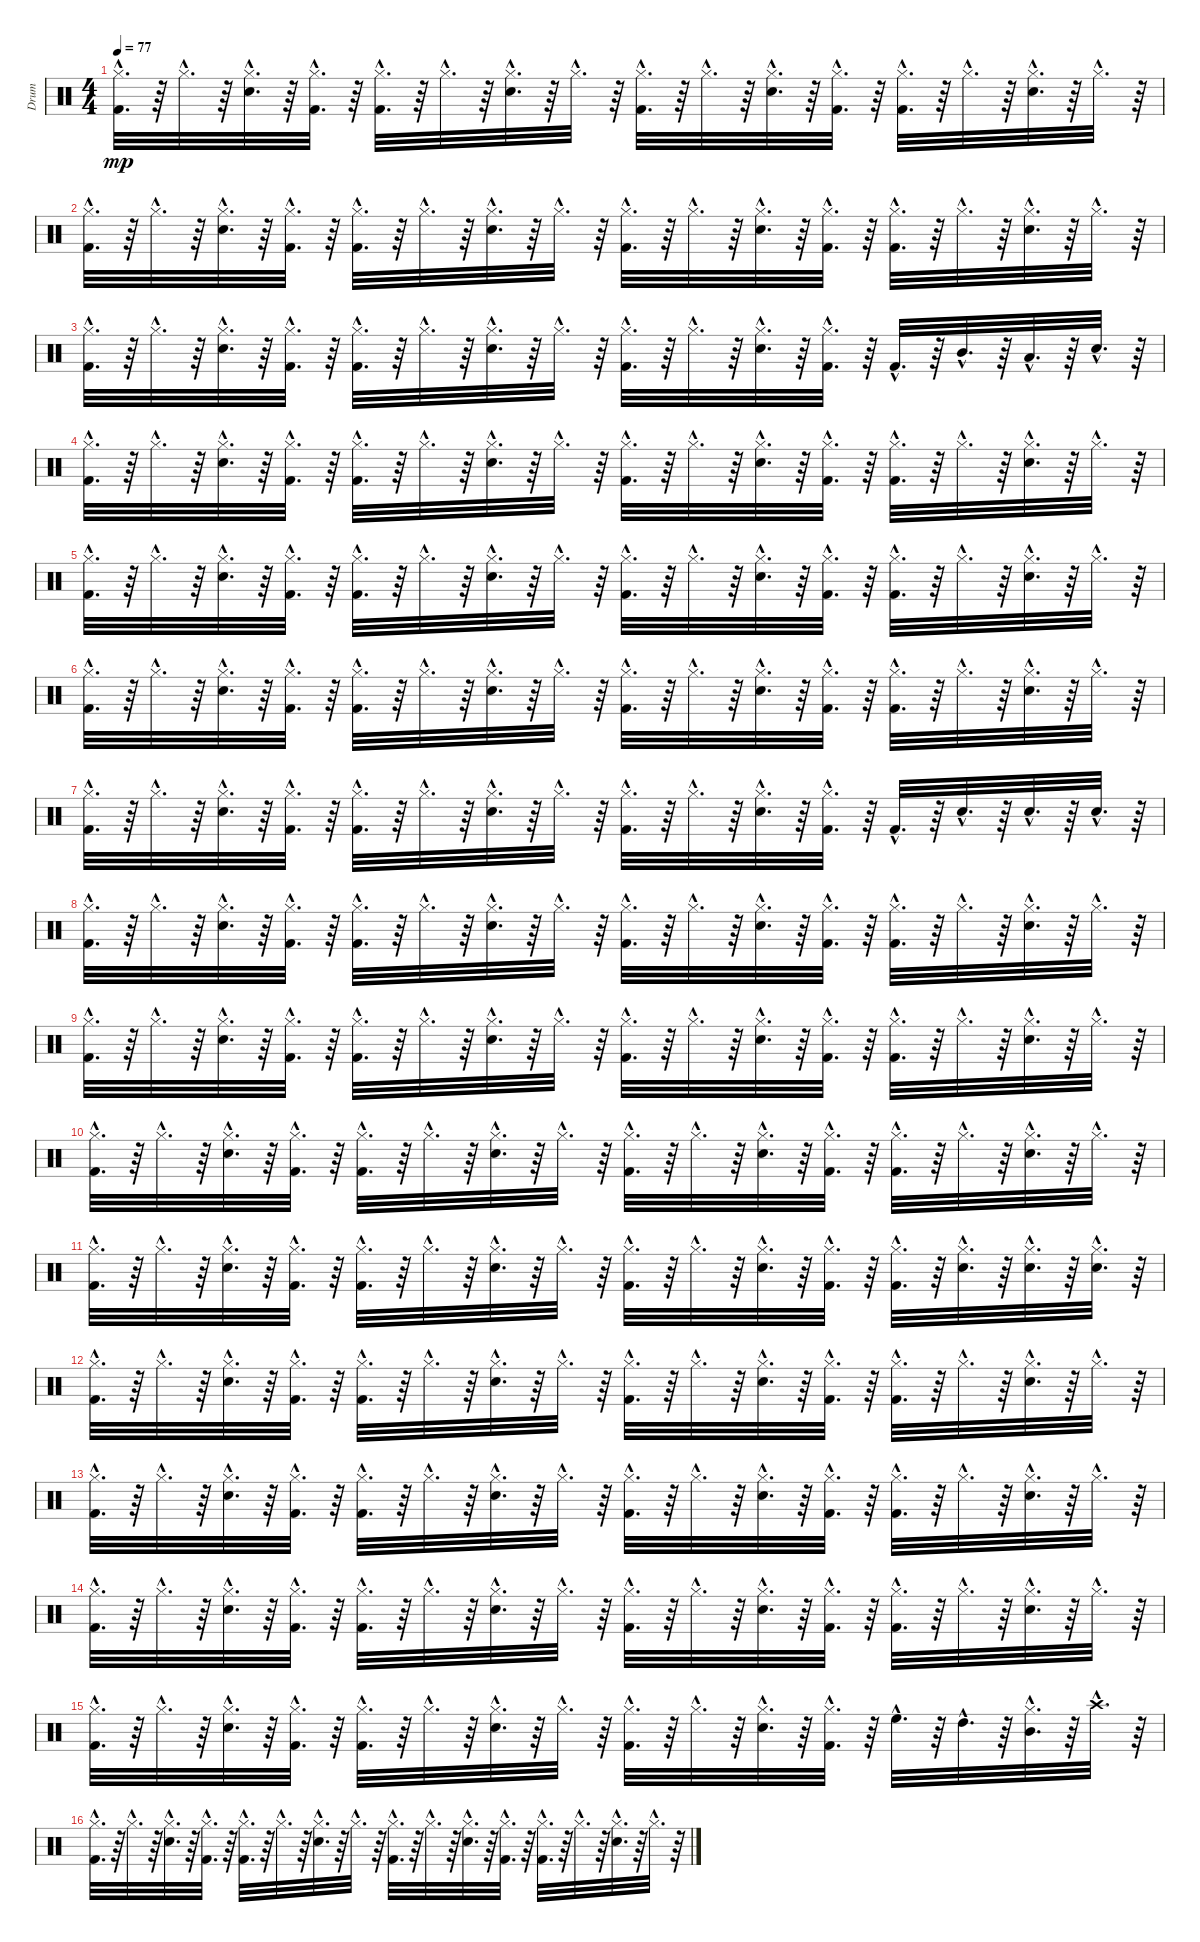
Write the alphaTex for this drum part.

\track ("Drum" "Drum") {instrument percussion}
\staff {score}
\articulation defaults
\ts (4 4)
\tempo 77
\clef neutral
\ks c
("Hi-Hat (closed)"{hac} "Kick (hit) 2"{hac}).32{d dy mp} r.64 "Hi-Hat (closed)"{hac}.32{d} r.64 ("Snare (hit) 2"{hac} "Hi-Hat (closed)"{hac}).32{d} r.64 ("Kick (hit) 2"{hac} "Hi-Hat (closed)"{hac}).32{d} r.64 ("Hi-Hat (closed)"{hac} "Kick (hit) 2"{hac}).32{d} r.64 "Hi-Hat (closed)"{hac}.32{d} r.64 ("Snare (hit) 2"{hac} "Hi-Hat (closed)"{hac}).32{d} r.64 "Hi-Hat (closed)"{hac}.32{d} r.64 ("Kick (hit) 2"{hac} "Hi-Hat (closed)"{hac}).32{d} r.64 "Hi-Hat (closed)"{hac}.32{d} r.64 ("Snare (hit) 2"{hac} "Hi-Hat (closed)"{hac}).32{d} r.64 ("Hi-Hat (closed)"{hac} "Kick (hit) 2"{hac}).32{d} r.64 ("Hi-Hat (closed)"{hac} "Kick (hit) 2"{hac}).32{d} r.64 "Hi-Hat (closed)"{hac}.32{d} r.64 ("Hi-Hat (closed)"{hac} "Snare (hit) 2"{hac}).32{d} r.64 "Hi-Hat (closed)"{hac}.32{d} r.64 |
("Hi-Hat (closed)"{hac} "Kick (hit) 2"{hac}).32{d} r.64 "Hi-Hat (closed)"{hac}.32{d} r.64 ("Hi-Hat (closed)"{hac} "Snare (hit) 2"{hac}).32{d} r.64 ("Kick (hit) 2"{hac} "Hi-Hat (closed)"{hac}).32{d} r.64 ("Hi-Hat (closed)"{hac} "Kick (hit) 2"{hac}).32{d} r.64 "Hi-Hat (closed)"{hac}.32{d} r.64 ("Hi-Hat (closed)"{hac} "Snare (hit) 2"{hac}).32{d} r.64 "Hi-Hat (closed)"{hac}.32{d} r.64 ("Hi-Hat (closed)"{hac} "Kick (hit) 2"{hac}).32{d} r.64 "Hi-Hat (closed)"{hac}.32{d} r.64 ("Hi-Hat (closed)"{hac} "Snare (hit) 2"{hac}).32{d} r.64 ("Kick (hit) 2"{hac} "Hi-Hat (closed)"{hac}).32{d} r.64 ("Kick (hit) 2"{hac} "Hi-Hat (closed)"{hac}).32{d} r.64 "Hi-Hat (closed)"{hac}.32{d} r.64 ("Hi-Hat (closed)"{hac} "Snare (hit) 2"{hac}).32{d} r.64 "Hi-Hat (closed)"{hac}.32{d} r.64 |
("Hi-Hat (closed)"{hac} "Kick (hit) 2"{hac}).32{d} r.64 "Hi-Hat (closed)"{hac}.32{d} r.64 ("Hi-Hat (closed)"{hac} "Snare (hit) 2"{hac}).32{d} r.64 ("Kick (hit) 2"{hac} "Hi-Hat (closed)"{hac}).32{d} r.64 ("Kick (hit) 2"{hac} "Hi-Hat (closed)"{hac}).32{d} r.64 "Hi-Hat (closed)"{hac}.32{d} r.64 ("Snare (hit) 2"{hac} "Hi-Hat (closed)"{hac}).32{d} r.64 "Hi-Hat (closed)"{hac}.32{d} r.64 ("Kick (hit) 2"{hac} "Hi-Hat (closed)"{hac}).32{d} r.64 "Hi-Hat (closed)"{hac}.32{d} r.64 ("Hi-Hat (closed)"{hac} "Snare (hit) 2"{hac}).32{d} r.64 ("Kick (hit) 2"{hac} "Hi-Hat (closed)"{hac}).32{d} r.64 "Kick (hit) 2"{hac}.32{d} r.64 "Mid Tom (hit)"{hac}.32{d} r.64 "Low Tom (hit)"{hac}.32{d} r.64 "Snare (hit) 2"{hac}.32{d} r.64 |
("Hi-Hat (closed)"{hac} "Kick (hit) 2"{hac}).32{d} r.64 "Hi-Hat (closed)"{hac}.32{d} r.64 ("Hi-Hat (closed)"{hac} "Snare (hit) 2"{hac}).32{d} r.64 ("Hi-Hat (closed)"{hac} "Kick (hit) 2"{hac}).32{d} r.64 ("Kick (hit) 2"{hac} "Hi-Hat (closed)"{hac}).32{d} r.64 "Hi-Hat (closed)"{hac}.32{d} r.64 ("Snare (hit) 2"{hac} "Hi-Hat (closed)"{hac}).32{d} r.64 "Hi-Hat (closed)"{hac}.32{d} r.64 ("Hi-Hat (closed)"{hac} "Kick (hit) 2"{hac}).32{d} r.64 "Hi-Hat (closed)"{hac}.32{d} r.64 ("Snare (hit) 2"{hac} "Hi-Hat (closed)"{hac}).32{d} r.64 ("Hi-Hat (closed)"{hac} "Kick (hit) 2"{hac}).32{d} r.64 ("Kick (hit) 2"{hac} "Hi-Hat (closed)"{hac}).32{d} r.64 "Hi-Hat (closed)"{hac}.32{d} r.64 ("Hi-Hat (closed)"{hac} "Snare (hit) 2"{hac}).32{d} r.64 "Hi-Hat (closed)"{hac}.32{d} r.64 |
("Hi-Hat (closed)"{hac} "Kick (hit) 2"{hac}).32{d} r.64 "Hi-Hat (closed)"{hac}.32{d} r.64 ("Hi-Hat (closed)"{hac} "Snare (hit) 2"{hac}).32{d} r.64 ("Kick (hit) 2"{hac} "Hi-Hat (closed)"{hac}).32{d} r.64 ("Kick (hit) 2"{hac} "Hi-Hat (closed)"{hac}).32{d} r.64 "Hi-Hat (closed)"{hac}.32{d} r.64 ("Snare (hit) 2"{hac} "Hi-Hat (closed)"{hac}).32{d} r.64 "Hi-Hat (closed)"{hac}.32{d} r.64 ("Hi-Hat (closed)"{hac} "Kick (hit) 2"{hac}).32{d} r.64 "Hi-Hat (closed)"{hac}.32{d} r.64 ("Hi-Hat (closed)"{hac} "Snare (hit) 2"{hac}).32{d} r.64 ("Hi-Hat (closed)"{hac} "Kick (hit) 2"{hac}).32{d} r.64 ("Kick (hit) 2"{hac} "Hi-Hat (closed)"{hac}).32{d} r.64 "Hi-Hat (closed)"{hac}.32{d} r.64 ("Snare (hit) 2"{hac} "Hi-Hat (closed)"{hac}).32{d} r.64 "Hi-Hat (closed)"{hac}.32{d} r.64 |
("Hi-Hat (closed)"{hac} "Kick (hit) 2"{hac}).32{d} r.64 "Hi-Hat (closed)"{hac}.32{d} r.64 ("Hi-Hat (closed)"{hac} "Snare (hit) 2"{hac}).32{d} r.64 ("Kick (hit) 2"{hac} "Hi-Hat (closed)"{hac}).32{d} r.64 ("Hi-Hat (closed)"{hac} "Kick (hit) 2"{hac}).32{d} r.64 "Hi-Hat (closed)"{hac}.32{d} r.64 ("Hi-Hat (closed)"{hac} "Snare (hit) 2"{hac}).32{d} r.64 "Hi-Hat (closed)"{hac}.32{d} r.64 ("Kick (hit) 2"{hac} "Hi-Hat (closed)"{hac}).32{d} r.64 "Hi-Hat (closed)"{hac}.32{d} r.64 ("Snare (hit) 2"{hac} "Hi-Hat (closed)"{hac}).32{d} r.64 ("Hi-Hat (closed)"{hac} "Kick (hit) 2"{hac}).32{d} r.64 ("Kick (hit) 2"{hac} "Hi-Hat (closed)"{hac}).32{d} r.64 "Hi-Hat (closed)"{hac}.32{d} r.64 ("Hi-Hat (closed)"{hac} "Snare (hit) 2"{hac}).32{d} r.64 "Hi-Hat (closed)"{hac}.32{d} r.64 |
("Kick (hit) 2"{hac} "Hi-Hat (closed)"{hac}).32{d} r.64 "Hi-Hat (closed)"{hac}.32{d} r.64 ("Snare (hit) 2"{hac} "Hi-Hat (closed)"{hac}).32{d} r.64 ("Kick (hit) 2"{hac} "Hi-Hat (closed)"{hac}).32{d} r.64 ("Kick (hit) 2"{hac} "Hi-Hat (closed)"{hac}).32{d} r.64 "Hi-Hat (closed)"{hac}.32{d} r.64 ("Hi-Hat (closed)"{hac} "Snare (hit) 2"{hac}).32{d} r.64 "Hi-Hat (closed)"{hac}.32{d} r.64 ("Kick (hit) 2"{hac} "Hi-Hat (closed)"{hac}).32{d} r.64 "Hi-Hat (closed)"{hac}.32{d} r.64 ("Hi-Hat (closed)"{hac} "Snare (hit) 2"{hac}).32{d} r.64 ("Hi-Hat (closed)"{hac} "Kick (hit) 2"{hac}).32{d} r.64 "Kick (hit) 2"{hac}.32{d} r.64 "Snare (hit) 2"{hac}.32{d} r.64 "Electric Snare (hit)"{hac}.32{d} r.64 "Electric Snare (hit)"{hac}.32{d} r.64 |
("Hi-Hat (closed)"{hac} "Kick (hit) 2"{hac}).32{d} r.64 "Hi-Hat (closed)"{hac}.32{d} r.64 ("Hi-Hat (closed)"{hac} "Snare (hit) 2"{hac}).32{d} r.64 ("Hi-Hat (closed)"{hac} "Kick (hit) 2"{hac}).32{d} r.64 ("Hi-Hat (closed)"{hac} "Kick (hit) 2"{hac}).32{d} r.64 "Hi-Hat (closed)"{hac}.32{d} r.64 ("Hi-Hat (closed)"{hac} "Snare (hit) 2"{hac}).32{d} r.64 "Hi-Hat (closed)"{hac}.32{d} r.64 ("Hi-Hat (closed)"{hac} "Kick (hit) 2"{hac}).32{d} r.64 "Hi-Hat (closed)"{hac}.32{d} r.64 ("Snare (hit) 2"{hac} "Hi-Hat (closed)"{hac}).32{d} r.64 ("Hi-Hat (closed)"{hac} "Kick (hit) 2"{hac}).32{d} r.64 ("Kick (hit) 2"{hac} "Hi-Hat (closed)"{hac}).32{d} r.64 "Hi-Hat (closed)"{hac}.32{d} r.64 ("Hi-Hat (closed)"{hac} "Snare (hit) 2"{hac}).32{d} r.64 "Hi-Hat (closed)"{hac}.32{d} r.64 |
("Hi-Hat (closed)"{hac} "Kick (hit) 2"{hac}).32{d} r.64 "Hi-Hat (closed)"{hac}.32{d} r.64 ("Snare (hit) 2"{hac} "Hi-Hat (closed)"{hac}).32{d} r.64 ("Kick (hit) 2"{hac} "Hi-Hat (closed)"{hac}).32{d} r.64 ("Kick (hit) 2"{hac} "Hi-Hat (closed)"{hac}).32{d} r.64 "Hi-Hat (closed)"{hac}.32{d} r.64 ("Snare (hit) 2"{hac} "Hi-Hat (closed)"{hac}).32{d} r.64 "Hi-Hat (closed)"{hac}.32{d} r.64 ("Kick (hit) 2"{hac} "Hi-Hat (closed)"{hac}).32{d} r.64 "Hi-Hat (closed)"{hac}.32{d} r.64 ("Hi-Hat (closed)"{hac} "Snare (hit) 2"{hac}).32{d} r.64 ("Hi-Hat (closed)"{hac} "Kick (hit) 2"{hac}).32{d} r.64 ("Kick (hit) 2"{hac} "Hi-Hat (closed)"{hac}).32{d} r.64 "Hi-Hat (closed)"{hac}.32{d} r.64 ("Hi-Hat (closed)"{hac} "Snare (hit) 2"{hac}).32{d} r.64 "Hi-Hat (closed)"{hac}.32{d} r.64 |
("Hi-Hat (closed)"{hac} "Kick (hit) 2"{hac}).32{d} r.64 "Hi-Hat (closed)"{hac}.32{d} r.64 ("Hi-Hat (closed)"{hac} "Snare (hit) 2"{hac}).32{d} r.64 ("Hi-Hat (closed)"{hac} "Kick (hit) 2"{hac}).32{d} r.64 ("Hi-Hat (closed)"{hac} "Kick (hit) 2"{hac}).32{d} r.64 "Hi-Hat (closed)"{hac}.32{d} r.64 ("Hi-Hat (closed)"{hac} "Snare (hit) 2"{hac}).32{d} r.64 "Hi-Hat (closed)"{hac}.32{d} r.64 ("Kick (hit) 2"{hac} "Hi-Hat (closed)"{hac}).32{d} r.64 "Hi-Hat (closed)"{hac}.32{d} r.64 ("Snare (hit) 2"{hac} "Hi-Hat (closed)"{hac}).32{d} r.64 ("Kick (hit) 2"{hac} "Hi-Hat (closed)"{hac}).32{d} r.64 ("Hi-Hat (closed)"{hac} "Kick (hit) 2"{hac}).32{d} r.64 "Hi-Hat (closed)"{hac}.32{d} r.64 ("Hi-Hat (closed)"{hac} "Snare (hit) 2"{hac}).32{d} r.64 "Hi-Hat (closed)"{hac}.32{d} r.64 |
("Kick (hit) 2"{hac} "Hi-Hat (closed)"{hac}).32{d} r.64 "Hi-Hat (closed)"{hac}.32{d} r.64 ("Snare (hit) 2"{hac} "Hi-Hat (closed)"{hac}).32{d} r.64 ("Kick (hit) 2"{hac} "Hi-Hat (closed)"{hac}).32{d} r.64 ("Hi-Hat (closed)"{hac} "Kick (hit) 2"{hac}).32{d} r.64 "Hi-Hat (closed)"{hac}.32{d} r.64 ("Hi-Hat (closed)"{hac} "Snare (hit) 2"{hac}).32{d} r.64 "Hi-Hat (closed)"{hac}.32{d} r.64 ("Hi-Hat (closed)"{hac} "Kick (hit) 2"{hac}).32{d} r.64 "Hi-Hat (closed)"{hac}.32{d} r.64 ("Hi-Hat (closed)"{hac} "Snare (hit) 2"{hac}).32{d} r.64 ("Kick (hit) 2"{hac} "Hi-Hat (closed)"{hac}).32{d} r.64 ("Hi-Hat (closed)"{hac} "Kick (hit) 2"{hac}).32{d} r.64 ("Hi-Hat (closed)"{hac} "Electric Snare (hit)"{hac}).32{d} r.64 ("Hi-Hat (closed)"{hac} "Snare (hit) 2"{hac}).32{d} r.64 ("Electric Snare (hit)"{hac} "Hi-Hat (closed)"{hac}).32{d} r.64 |
("Hi-Hat (closed)"{hac} "Kick (hit) 2"{hac}).32{d} r.64 "Hi-Hat (closed)"{hac}.32{d} r.64 ("Snare (hit) 2"{hac} "Hi-Hat (closed)"{hac}).32{d} r.64 ("Kick (hit) 2"{hac} "Hi-Hat (closed)"{hac}).32{d} r.64 ("Kick (hit) 2"{hac} "Hi-Hat (closed)"{hac}).32{d} r.64 "Hi-Hat (closed)"{hac}.32{d} r.64 ("Snare (hit) 2"{hac} "Hi-Hat (closed)"{hac}).32{d} r.64 "Hi-Hat (closed)"{hac}.32{d} r.64 ("Kick (hit) 2"{hac} "Hi-Hat (closed)"{hac}).32{d} r.64 "Hi-Hat (closed)"{hac}.32{d} r.64 ("Snare (hit) 2"{hac} "Hi-Hat (closed)"{hac}).32{d} r.64 ("Kick (hit) 2"{hac} "Hi-Hat (closed)"{hac}).32{d} r.64 ("Kick (hit) 2"{hac} "Hi-Hat (closed)"{hac}).32{d} r.64 "Hi-Hat (closed)"{hac}.32{d} r.64 ("Snare (hit) 2"{hac} "Hi-Hat (closed)"{hac}).32{d} r.64 "Hi-Hat (closed)"{hac}.32{d} r.64 |
("Kick (hit) 2"{hac} "Hi-Hat (closed)"{hac}).32{d} r.64 "Hi-Hat (closed)"{hac}.32{d} r.64 ("Hi-Hat (closed)"{hac} "Snare (hit) 2"{hac}).32{d} r.64 ("Kick (hit) 2"{hac} "Hi-Hat (closed)"{hac}).32{d} r.64 ("Hi-Hat (closed)"{hac} "Kick (hit) 2"{hac}).32{d} r.64 "Hi-Hat (closed)"{hac}.32{d} r.64 ("Hi-Hat (closed)"{hac} "Snare (hit) 2"{hac}).32{d} r.64 "Hi-Hat (closed)"{hac}.32{d} r.64 ("Kick (hit) 2"{hac} "Hi-Hat (closed)"{hac}).32{d} r.64 "Hi-Hat (closed)"{hac}.32{d} r.64 ("Hi-Hat (closed)"{hac} "Snare (hit) 2"{hac}).32{d} r.64 ("Hi-Hat (closed)"{hac} "Kick (hit) 2"{hac}).32{d} r.64 ("Kick (hit) 2"{hac} "Hi-Hat (closed)"{hac}).32{d} r.64 "Hi-Hat (closed)"{hac}.32{d} r.64 ("Snare (hit) 2"{hac} "Hi-Hat (closed)"{hac}).32{d} r.64 "Hi-Hat (closed)"{hac}.32{d} r.64 |
("Hi-Hat (closed)"{hac} "Kick (hit) 2"{hac}).32{d} r.64 "Hi-Hat (closed)"{hac}.32{d} r.64 ("Snare (hit) 2"{hac} "Hi-Hat (closed)"{hac}).32{d} r.64 ("Hi-Hat (closed)"{hac} "Kick (hit) 2"{hac}).32{d} r.64 ("Hi-Hat (closed)"{hac} "Kick (hit) 2"{hac}).32{d} r.64 "Hi-Hat (closed)"{hac}.32{d} r.64 ("Snare (hit) 2"{hac} "Hi-Hat (closed)"{hac}).32{d} r.64 "Hi-Hat (closed)"{hac}.32{d} r.64 ("Hi-Hat (closed)"{hac} "Kick (hit) 2"{hac}).32{d} r.64 "Hi-Hat (closed)"{hac}.32{d} r.64 ("Hi-Hat (closed)"{hac} "Snare (hit) 2"{hac}).32{d} r.64 ("Kick (hit) 2"{hac} "Hi-Hat (closed)"{hac}).32{d} r.64 ("Kick (hit) 2"{hac} "Hi-Hat (closed)"{hac}).32{d} r.64 "Hi-Hat (closed)"{hac}.32{d} r.64 ("Snare (hit) 2"{hac} "Hi-Hat (closed)"{hac}).32{d} r.64 "Hi-Hat (closed)"{hac}.32{d} r.64 |
("Kick (hit) 2"{hac} "Hi-Hat (closed)"{hac}).32{d} r.64 "Hi-Hat (closed)"{hac}.32{d} r.64 ("Hi-Hat (closed)"{hac} "Snare (hit) 2"{hac}).32{d} r.64 ("Kick (hit) 2"{hac} "Hi-Hat (closed)"{hac}).32{d} r.64 ("Hi-Hat (closed)"{hac} "Kick (hit) 2"{hac}).32{d} r.64 "Hi-Hat (closed)"{hac}.32{d} r.64 ("Hi-Hat (closed)"{hac} "Snare (hit) 2"{hac}).32{d} r.64 "Hi-Hat (closed)"{hac}.32{d} r.64 ("Hi-Hat (closed)"{hac} "Kick (hit) 2"{hac}).32{d} r.64 "Hi-Hat (closed)"{hac}.32{d} r.64 ("Hi-Hat (closed)"{hac} "Snare (hit) 2"{hac}).32{d} r.64 ("Kick (hit) 2"{hac} "Hi-Hat (closed)"{hac}).32{d} r.64 "High Floor Tom (hit)"{hac}.32{d} r.64 "High Tom (hit)"{hac}.32{d} r.64 ("Mid Tom (hit)"{hac} "Hi-Hat (closed)"{hac}).32{d} r.64 "Crash high (hit)"{hac}.32{d} r.64 |
("Hi-Hat (closed)"{hac} "Kick (hit) 2"{hac}).32{d} r.64 "Hi-Hat (closed)"{hac}.32{d} r.64 ("Hi-Hat (closed)"{hac} "Snare (hit) 2"{hac}).32{d} r.64 ("Kick (hit) 2"{hac} "Hi-Hat (closed)"{hac}).32{d} r.64 ("Hi-Hat (closed)"{hac} "Kick (hit) 2"{hac}).32{d} r.64 "Hi-Hat (closed)"{hac}.32{d} r.64 ("Hi-Hat (closed)"{hac} "Snare (hit) 2"{hac}).32{d} r.64 "Hi-Hat (closed)"{hac}.32{d} r.64 ("Kick (hit) 2"{hac} "Hi-Hat (closed)"{hac}).32{d} r.64 "Hi-Hat (closed)"{hac}.32{d} r.64 ("Hi-Hat (closed)"{hac} "Snare (hit) 2"{hac}).32{d} r.64 ("Kick (hit) 2"{hac} "Hi-Hat (closed)"{hac}).32{d} r.64 ("Hi-Hat (closed)"{hac} "Kick (hit) 2"{hac}).32{d} r.64 "Hi-Hat (closed)"{hac}.32{d} r.64 ("Snare (hit) 2"{hac} "Hi-Hat (closed)"{hac}).32{d} r.64 "Hi-Hat (closed)"{hac}.32{d} r.64
